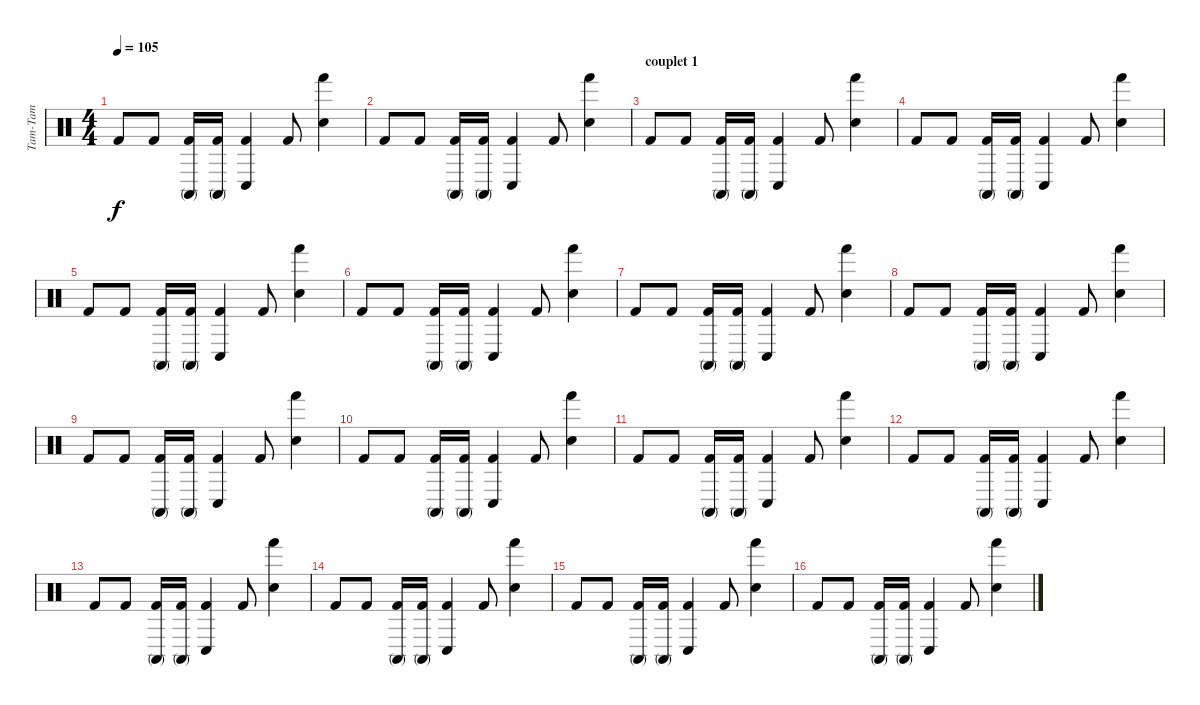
\track ("Tam-Tam" "Tam-Tam") {instrument percussion}
\staff {score}
\articulation defaults
\ts (4 4)
\tempo 105
\clef neutral
\ks c "Kick (hit) 2".8{dy f} "Kick (hit) 2".8
("Conga high (mute)" "Kick (hit) 2").16 ("Conga high (mute)" "Kick (hit) 2").16 ("Conga low (hit)" "Kick (hit) 2").4 "Kick (hit) 2".8 ("Hand (hit)" "Electric Snare (hit)").4 |
"Kick (hit) 2".8 "Kick (hit) 2".8 ("Conga high (mute)" "Kick (hit) 2").16 ("Conga high (mute)" "Kick (hit) 2").16 ("Conga low (hit)" "Kick (hit) 2").4 "Kick (hit) 2".8 ("Hand (hit)" "Electric Snare (hit)").4 |
\section ("" "couplet 1")
"Kick (hit) 2".8 "Kick (hit) 2".8 ("Conga high (mute)" "Kick (hit) 2").16 ("Conga high (mute)" "Kick (hit) 2").16 ("Conga low (hit)" "Kick (hit) 2").4 "Kick (hit) 2".8 ("Hand (hit)" "Electric Snare (hit)").4 |
"Kick (hit) 2".8 "Kick (hit) 2".8 ("Conga high (mute)" "Kick (hit) 2").16 ("Conga high (mute)" "Kick (hit) 2").16 ("Conga low (hit)" "Kick (hit) 2").4 "Kick (hit) 2".8 ("Hand (hit)" "Electric Snare (hit)").4 |
"Kick (hit) 2".8 "Kick (hit) 2".8 ("Conga high (mute)" "Kick (hit) 2").16 ("Conga high (mute)" "Kick (hit) 2").16 ("Conga low (hit)" "Kick (hit) 2").4 "Kick (hit) 2".8 ("Hand (hit)" "Electric Snare (hit)").4 |
"Kick (hit) 2".8 "Kick (hit) 2".8 ("Conga high (mute)" "Kick (hit) 2").16 ("Conga high (mute)" "Kick (hit) 2").16 ("Conga low (hit)" "Kick (hit) 2").4 "Kick (hit) 2".8 ("Hand (hit)" "Electric Snare (hit)").4 |
"Kick (hit) 2".8 "Kick (hit) 2".8 ("Conga high (mute)" "Kick (hit) 2").16 ("Conga high (mute)" "Kick (hit) 2").16 ("Conga low (hit)" "Kick (hit) 2").4 "Kick (hit) 2".8 ("Hand (hit)" "Electric Snare (hit)").4 |
"Kick (hit) 2".8 "Kick (hit) 2".8 ("Conga high (mute)" "Kick (hit) 2").16 ("Conga high (mute)" "Kick (hit) 2").16 ("Conga low (hit)" "Kick (hit) 2").4 "Kick (hit) 2".8 ("Hand (hit)" "Electric Snare (hit)").4 |
"Kick (hit) 2".8 "Kick (hit) 2".8 ("Conga high (mute)" "Kick (hit) 2").16 ("Conga high (mute)" "Kick (hit) 2").16 ("Conga low (hit)" "Kick (hit) 2").4 "Kick (hit) 2".8 ("Hand (hit)" "Electric Snare (hit)").4 |
"Kick (hit) 2".8 "Kick (hit) 2".8 ("Conga high (mute)" "Kick (hit) 2").16 ("Conga high (mute)" "Kick (hit) 2").16 ("Conga low (hit)" "Kick (hit) 2").4 "Kick (hit) 2".8 ("Hand (hit)" "Electric Snare (hit)").4 |
"Kick (hit) 2".8 "Kick (hit) 2".8 ("Conga high (mute)" "Kick (hit) 2").16 ("Conga high (mute)" "Kick (hit) 2").16 ("Conga low (hit)" "Kick (hit) 2").4 "Kick (hit) 2".8 ("Hand (hit)" "Electric Snare (hit)").4 |
"Kick (hit) 2".8 "Kick (hit) 2".8 ("Conga high (mute)" "Kick (hit) 2").16 ("Conga high (mute)" "Kick (hit) 2").16 ("Conga low (hit)" "Kick (hit) 2").4 "Kick (hit) 2".8 ("Hand (hit)" "Electric Snare (hit)").4 |
"Kick (hit) 2".8 "Kick (hit) 2".8 ("Conga high (mute)" "Kick (hit) 2").16 ("Conga high (mute)" "Kick (hit) 2").16 ("Conga low (hit)" "Kick (hit) 2").4 "Kick (hit) 2".8 ("Hand (hit)" "Electric Snare (hit)").4 |
"Kick (hit) 2".8 "Kick (hit) 2".8 ("Conga high (mute)" "Kick (hit) 2").16 ("Conga high (mute)" "Kick (hit) 2").16 ("Conga low (hit)" "Kick (hit) 2").4 "Kick (hit) 2".8 ("Hand (hit)" "Electric Snare (hit)").4 |
"Kick (hit) 2".8 "Kick (hit) 2".8 ("Conga high (mute)" "Kick (hit) 2").16 ("Conga high (mute)" "Kick (hit) 2").16 ("Conga low (hit)" "Kick (hit) 2").4 "Kick (hit) 2".8 ("Hand (hit)" "Electric Snare (hit)").4 |
"Kick (hit) 2".8 "Kick (hit) 2".8 ("Conga high (mute)" "Kick (hit) 2").16 ("Conga high (mute)" "Kick (hit) 2").16 ("Conga low (hit)" "Kick (hit) 2").4 "Kick (hit) 2".8 ("Hand (hit)" "Electric Snare (hit)").4
